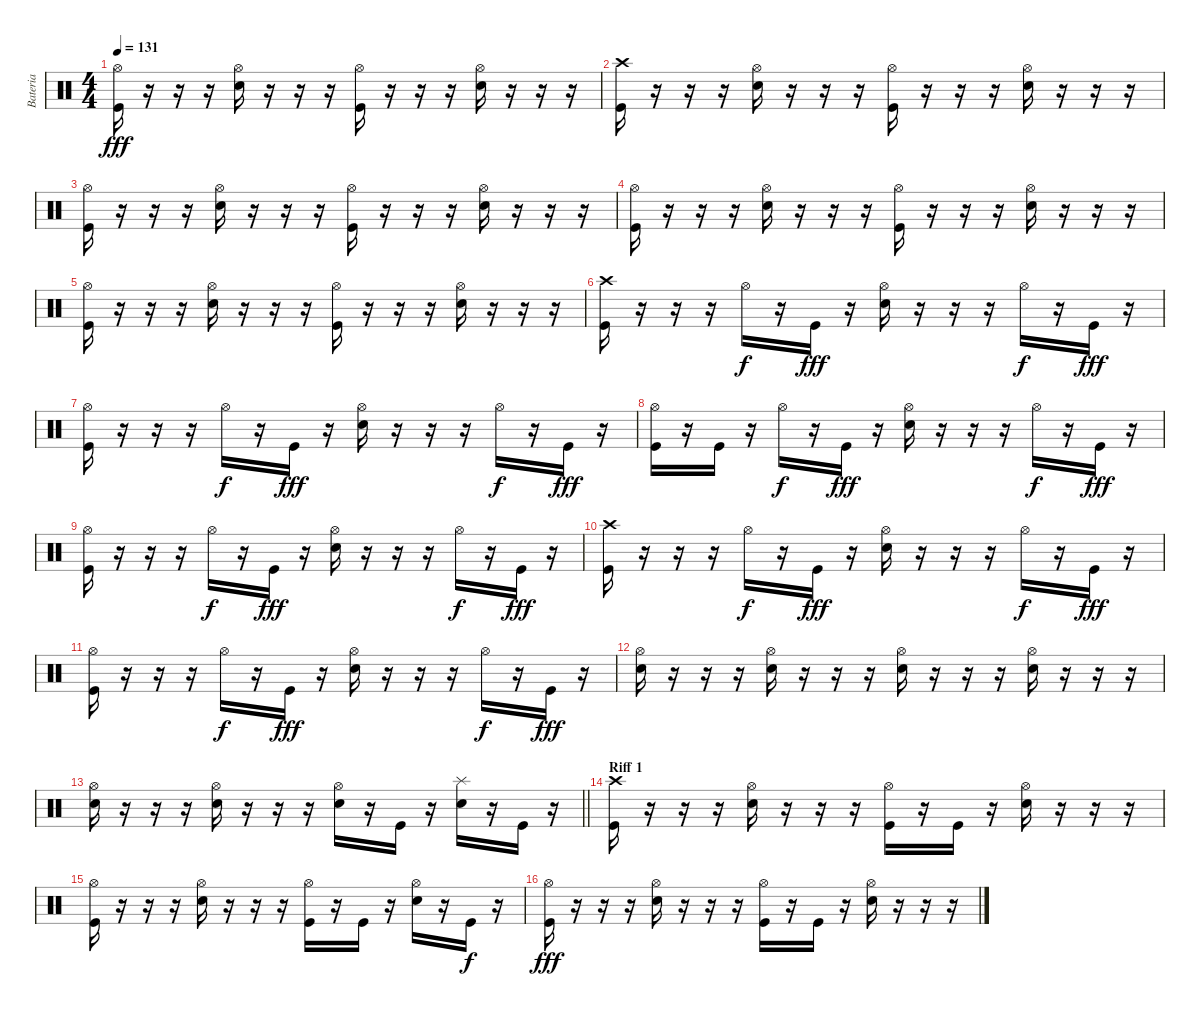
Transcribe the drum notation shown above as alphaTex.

\track ("Bateria" "Bateria") {instrument percussion}
\staff {score}
\articulation defaults
\ts (4 4)
\tempo 131
\clef neutral
\ks c
("Hi-Hat (open)" "Kick (hit)").16{dy fff} r.16 r.16 r.16 ("Hi-Hat (open)" "Electric Snare (hit)").16 r.16 r.16 r.16 ("Hi-Hat (open)" "Kick (hit)").16 r.16 r.16 r.16 ("Hi-Hat (open)" "Electric Snare (hit)").16 r.16 r.16 r.16 |
("Crash high (hit)" "Kick (hit)").16 r.16 r.16 r.16 ("Hi-Hat (open)" "Electric Snare (hit)").16 r.16 r.16 r.16 ("Hi-Hat (open)" "Kick (hit)").16 r.16 r.16 r.16 ("Hi-Hat (open)" "Electric Snare (hit)").16 r.16 r.16 r.16 |
("Hi-Hat (open)" "Kick (hit)").16 r.16 r.16 r.16 ("Hi-Hat (open)" "Electric Snare (hit)").16 r.16 r.16 r.16 ("Hi-Hat (open)" "Kick (hit)").16 r.16 r.16 r.16 ("Hi-Hat (open)" "Electric Snare (hit)").16 r.16 r.16 r.16 |
("Hi-Hat (open)" "Kick (hit)").16 r.16 r.16 r.16 ("Hi-Hat (open)" "Electric Snare (hit)").16 r.16 r.16 r.16 ("Hi-Hat (open)" "Kick (hit)").16 r.16 r.16 r.16 ("Hi-Hat (open)" "Electric Snare (hit)").16 r.16 r.16 r.16 |
("Hi-Hat (open)" "Kick (hit)").16 r.16 r.16 r.16 ("Hi-Hat (open)" "Electric Snare (hit)").16 r.16 r.16 r.16 ("Hi-Hat (open)" "Kick (hit)").16 r.16 r.16 r.16 ("Hi-Hat (open)" "Electric Snare (hit)").16 r.16 r.16 r.16 |
("Crash high (hit)" "Kick (hit)").16 r.16 r.16 r.16 "Hi-Hat (open)".16{dy f} r.16 "Kick (hit)".16{dy fff} r.16 ("Hi-Hat (open)" "Electric Snare (hit)").16 r.16 r.16 r.16 "Hi-Hat (open)".16{dy f} r.16 "Kick (hit)".16{dy fff} r.16 |
("Hi-Hat (open)" "Kick (hit)").16 r.16 r.16 r.16 "Hi-Hat (open)".16{dy f} r.16 "Kick (hit)".16{dy fff} r.16 ("Hi-Hat (open)" "Electric Snare (hit)").16 r.16 r.16 r.16 "Hi-Hat (open)".16{dy f} r.16 "Kick (hit)".16{dy fff} r.16 |
("Hi-Hat (open)" "Kick (hit)").16 r.16 "Kick (hit)".16 r.16 "Hi-Hat (open)".16{dy f} r.16 "Kick (hit)".16{dy fff} r.16 ("Hi-Hat (open)" "Electric Snare (hit)").16 r.16 r.16 r.16 "Hi-Hat (open)".16{dy f} r.16 "Kick (hit)".16{dy fff} r.16 |
("Hi-Hat (open)" "Kick (hit)").16 r.16 r.16 r.16 "Hi-Hat (open)".16{dy f} r.16 "Kick (hit)".16{dy fff} r.16 ("Hi-Hat (open)" "Electric Snare (hit)").16 r.16 r.16 r.16 "Hi-Hat (open)".16{dy f} r.16 "Kick (hit)".16{dy fff} r.16 |
("Crash high (hit)" "Kick (hit)").16 r.16 r.16 r.16 "Hi-Hat (open)".16{dy f} r.16 "Kick (hit)".16{dy fff} r.16 ("Hi-Hat (open)" "Electric Snare (hit)").16 r.16 r.16 r.16 "Hi-Hat (open)".16{dy f} r.16 "Kick (hit)".16{dy fff} r.16 |
("Hi-Hat (open)" "Kick (hit)").16 r.16 r.16 r.16 "Hi-Hat (open)".16{dy f} r.16 "Kick (hit)".16{dy fff} r.16 ("Hi-Hat (open)" "Electric Snare (hit)").16 r.16 r.16 r.16 "Hi-Hat (open)".16{dy f} r.16 "Kick (hit)".16{dy fff} r.16 |
("Hi-Hat (open)" "Electric Snare (hit)").16 r.16 r.16 r.16 ("Hi-Hat (open)" "Electric Snare (hit)").16 r.16 r.16 r.16 ("Hi-Hat (open)" "Electric Snare (hit)").16 r.16 r.16 r.16 ("Hi-Hat (open)" "Electric Snare (hit)").16 r.16 r.16 r.16 |
\barLineRight lightlight
("Hi-Hat (open)" "Electric Snare (hit)").16 r.16 r.16 r.16 ("Hi-Hat (open)" "Electric Snare (hit)").16 r.16 r.16 r.16 ("Hi-Hat (open)" "Electric Snare (hit)").16 r.16 "Kick (hit)".16 r.16 ("Splash (hit)" "Electric Snare (hit)").16 r.16 "Kick (hit)".16 r.16 |
\section ("" "Riff 1")
("Crash high (hit)" "Kick (hit)").16 r.16 r.16 r.16 ("Hi-Hat (open)" "Electric Snare (hit)").16 r.16 r.16 r.16 ("Hi-Hat (open)" "Kick (hit)").16 r.16 "Kick (hit)".16 r.16 ("Hi-Hat (open)" "Electric Snare (hit)").16 r.16 r.16 r.16 |
("Hi-Hat (open)" "Kick (hit)").16 r.16 r.16 r.16 ("Hi-Hat (open)" "Electric Snare (hit)").16 r.16 r.16 r.16 ("Hi-Hat (open)" "Kick (hit)").16 r.16 "Kick (hit)".16 r.16 ("Hi-Hat (open)" "Electric Snare (hit)").16 r.16 "Kick (hit)".16{dy f} r.16 |
("Hi-Hat (open)" "Kick (hit)").16{dy fff} r.16 r.16 r.16 ("Hi-Hat (open)" "Electric Snare (hit)").16 r.16 r.16 r.16 ("Hi-Hat (open)" "Kick (hit)").16 r.16 "Kick (hit)".16 r.16 ("Hi-Hat (open)" "Electric Snare (hit)").16 r.16 r.16 r.16
